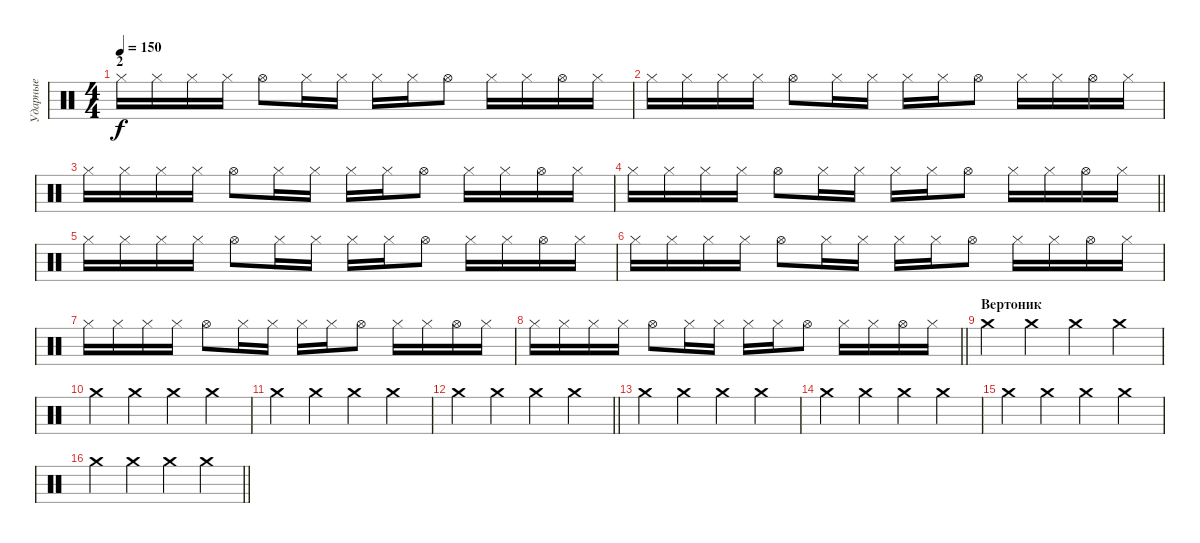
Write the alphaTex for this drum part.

\track ("Ударные" "Ударные") {instrument percussion}
\staff {score}
\articulation defaults
\ts (4 4)
\section ("" "2")
\tempo 150
\clef neutral
\ks c "Hi-Hat (closed)".16{dy f} "Hi-Hat (closed)".16 "Hi-Hat (closed)".16 "Hi-Hat (closed)".16 "Hi-Hat (open)".8 "Hi-Hat (closed)".16 "Hi-Hat (closed)".16 "Hi-Hat (closed)".16 "Hi-Hat (closed)".16 "Hi-Hat (open)".8 "Hi-Hat (closed)".16 "Hi-Hat (closed)".16 "Hi-Hat (open)".16 "Hi-Hat (closed)".16
|
"Hi-Hat (closed)".16 "Hi-Hat (closed)".16 "Hi-Hat (closed)".16 "Hi-Hat (closed)".16 "Hi-Hat (open)".8 "Hi-Hat (closed)".16 "Hi-Hat (closed)".16 "Hi-Hat (closed)".16 "Hi-Hat (closed)".16 "Hi-Hat (open)".8 "Hi-Hat (closed)".16 "Hi-Hat (closed)".16 "Hi-Hat (open)".16 "Hi-Hat (closed)".16 |
"Hi-Hat (closed)".16 "Hi-Hat (closed)".16 "Hi-Hat (closed)".16 "Hi-Hat (closed)".16 "Hi-Hat (open)".8 "Hi-Hat (closed)".16 "Hi-Hat (closed)".16 "Hi-Hat (closed)".16 "Hi-Hat (closed)".16 "Hi-Hat (open)".8 "Hi-Hat (closed)".16 "Hi-Hat (closed)".16 "Hi-Hat (open)".16 "Hi-Hat (closed)".16 |
\barLineRight lightlight "Hi-Hat (closed)".16 "Hi-Hat (closed)".16 "Hi-Hat (closed)".16 "Hi-Hat (closed)".16 "Hi-Hat (open)".8 "Hi-Hat (closed)".16 "Hi-Hat (closed)".16 "Hi-Hat (closed)".16 "Hi-Hat (closed)".16 "Hi-Hat (open)".8 "Hi-Hat (closed)".16 "Hi-Hat (closed)".16 "Hi-Hat (open)".16 "Hi-Hat (closed)".16
|
"Hi-Hat (closed)".16 "Hi-Hat (closed)".16 "Hi-Hat (closed)".16 "Hi-Hat (closed)".16 "Hi-Hat (open)".8 "Hi-Hat (closed)".16 "Hi-Hat (closed)".16 "Hi-Hat (closed)".16 "Hi-Hat (closed)".16 "Hi-Hat (open)".8 "Hi-Hat (closed)".16 "Hi-Hat (closed)".16 "Hi-Hat (open)".16 "Hi-Hat (closed)".16 |
"Hi-Hat (closed)".16 "Hi-Hat (closed)".16 "Hi-Hat (closed)".16 "Hi-Hat (closed)".16 "Hi-Hat (open)".8 "Hi-Hat (closed)".16 "Hi-Hat (closed)".16 "Hi-Hat (closed)".16 "Hi-Hat (closed)".16 "Hi-Hat (open)".8 "Hi-Hat (closed)".16 "Hi-Hat (closed)".16 "Hi-Hat (open)".16 "Hi-Hat (closed)".16 |
"Hi-Hat (closed)".16 "Hi-Hat (closed)".16 "Hi-Hat (closed)".16 "Hi-Hat (closed)".16 "Hi-Hat (open)".8 "Hi-Hat (closed)".16 "Hi-Hat (closed)".16 "Hi-Hat (closed)".16 "Hi-Hat (closed)".16 "Hi-Hat (open)".8 "Hi-Hat (closed)".16 "Hi-Hat (closed)".16 "Hi-Hat (open)".16 "Hi-Hat (closed)".16 |
\barLineRight lightlight "Hi-Hat (closed)".16 "Hi-Hat (closed)".16 "Hi-Hat (closed)".16 "Hi-Hat (closed)".16 "Hi-Hat (open)".8 "Hi-Hat (closed)".16 "Hi-Hat (closed)".16 "Hi-Hat (closed)".16 "Hi-Hat (closed)".16 "Hi-Hat (open)".8 "Hi-Hat (closed)".16 "Hi-Hat (closed)".16 "Hi-Hat (open)".16 "Hi-Hat (closed)".16
|
\section ("" "Вертоник")
"Crash medium (hit)".4 "Crash medium (hit)".4 "Crash medium (hit)".4 "Crash medium (hit)".4 |
"Crash medium (hit)".4 "Crash medium (hit)".4 "Crash medium (hit)".4 "Crash medium (hit)".4 |
"Crash medium (hit)".4 "Crash medium (hit)".4 "Crash medium (hit)".4 "Crash medium (hit)".4 |
\barLineRight lightlight "Crash medium (hit)".4 "Crash medium (hit)".4 "Crash medium (hit)".4 "Crash medium (hit)".4
|
"Crash medium (hit)".4 "Crash medium (hit)".4 "Crash medium (hit)".4 "Crash medium (hit)".4 |
"Crash medium (hit)".4 "Crash medium (hit)".4 "Crash medium (hit)".4 "Crash medium (hit)".4 |
"Crash medium (hit)".4 "Crash medium (hit)".4 "Crash medium (hit)".4 "Crash medium (hit)".4 |
\barLineRight lightlight "Crash medium (hit)".4 "Crash medium (hit)".4 "Crash medium (hit)".4 "Crash medium (hit)".4
